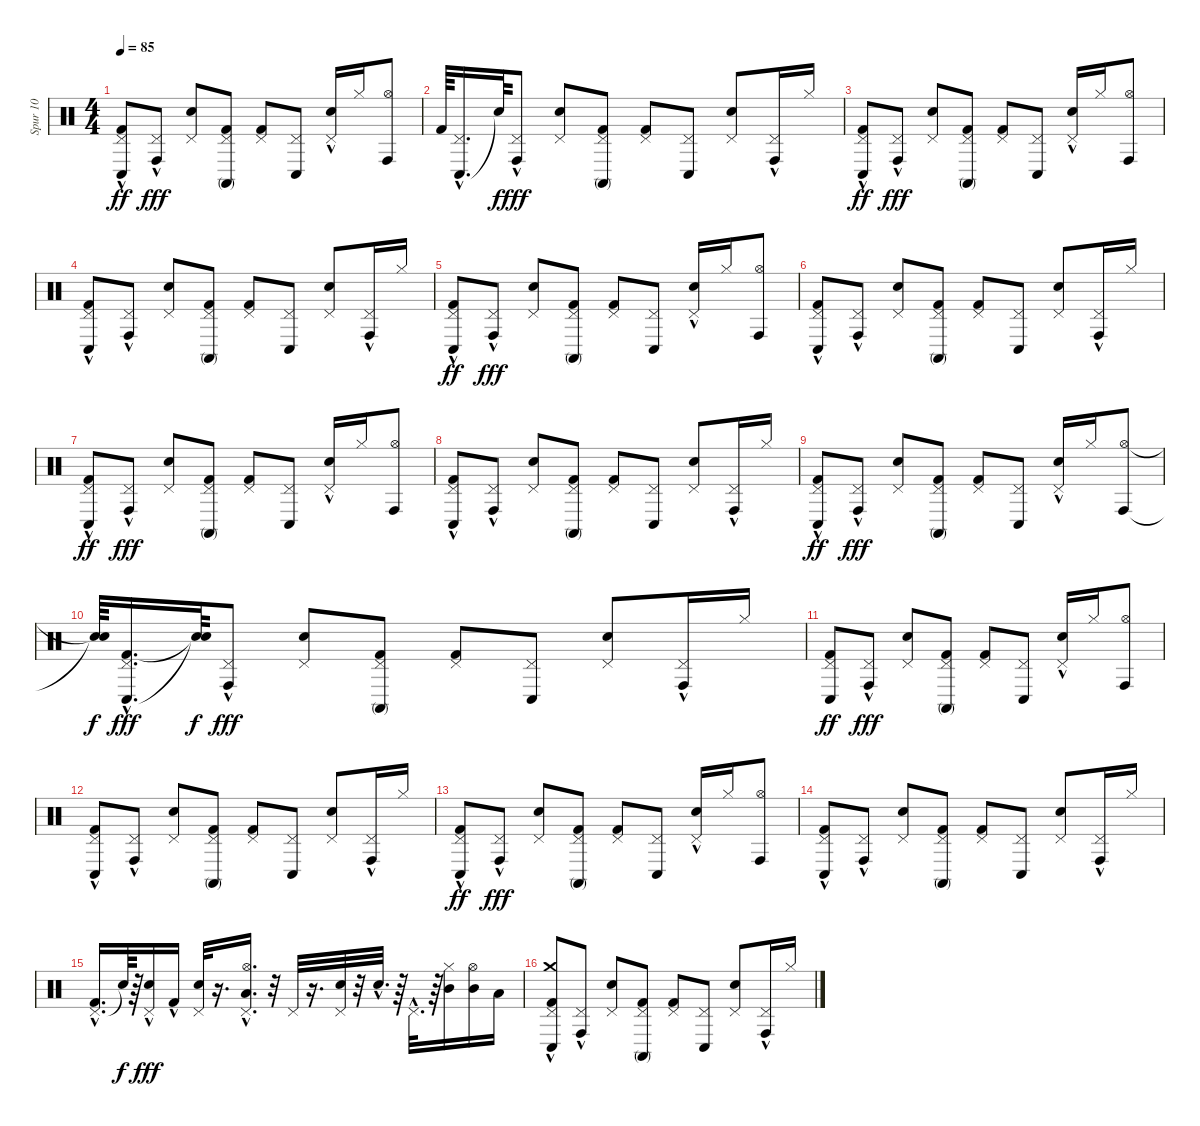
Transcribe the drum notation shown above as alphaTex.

\track ("Spur 10" "Spur 10") {instrument percussion}
\staff {score}
\articulation defaults
\ts (4 4)
\tempo 85
\clef neutral
\ks c
("Pedal Hi-Hat (hit)"{hac} "Kick (hit) 2" "Conga low (hit)").8{dy ff} ("Conga high (hit)" "Pedal Hi-Hat (hit)"{hac}).8{dy fff} ("Pedal Hi-Hat (hit)" "Snare (hit) 2").8 ("Kick (hit) 2" "Conga high (mute)" "Pedal Hi-Hat (hit)").8 ("Kick (hit) 2" "Pedal Hi-Hat (hit)").8 ("Conga low (hit)" "Pedal Hi-Hat (hit)").8 ("Snare (hit) 2" "Pedal Hi-Hat (hit)"{hac}).16 "Hi-Hat (closed)".16 ("Conga high (hit)" "Hi-Hat (open)").8 |
"Kick (hit) 2".64 ("Conga low (hit)"{hac} "Pedal Hi-Hat (hit)").16{d} "Snare (hit)"{t}.64{dy f} ("Conga high (hit)" "Pedal Hi-Hat (hit)"{hac}).8{dy fff} ("Snare (hit) 2" "Pedal Hi-Hat (hit)").8 ("Kick (hit) 2" "Conga high (mute)" "Pedal Hi-Hat (hit)").8 ("Kick (hit) 2" "Pedal Hi-Hat (hit)").8 ("Conga low (hit)" "Pedal Hi-Hat (hit)").8 ("Snare (hit) 2" "Pedal Hi-Hat (hit)").8 ("Conga high (hit)" "Pedal Hi-Hat (hit)"{hac}).16 "Hi-Hat (closed)".16 |
("Pedal Hi-Hat (hit)"{hac} "Kick (hit) 2" "Conga low (hit)").8{dy ff} ("Conga high (hit)" "Pedal Hi-Hat (hit)"{hac}).8{dy fff} ("Pedal Hi-Hat (hit)" "Snare (hit) 2").8 ("Kick (hit) 2" "Conga high (mute)" "Pedal Hi-Hat (hit)").8 ("Kick (hit) 2" "Pedal Hi-Hat (hit)").8 ("Conga low (hit)" "Pedal Hi-Hat (hit)").8 ("Snare (hit) 2" "Pedal Hi-Hat (hit)"{hac}).16 "Hi-Hat (closed)".16 ("Conga high (hit)" "Hi-Hat (open)").8 |
("Kick (hit) 2" "Conga low (hit)" "Pedal Hi-Hat (hit)"{hac}).8 ("Conga high (hit)" "Pedal Hi-Hat (hit)"{hac}).8 ("Snare (hit) 2" "Pedal Hi-Hat (hit)").8 ("Kick (hit) 2" "Conga high (mute)" "Pedal Hi-Hat (hit)").8 ("Kick (hit) 2" "Pedal Hi-Hat (hit)").8 ("Conga low (hit)" "Pedal Hi-Hat (hit)").8 ("Snare (hit) 2" "Pedal Hi-Hat (hit)").8 ("Conga high (hit)" "Pedal Hi-Hat (hit)"{hac}).16 "Hi-Hat (closed)".16 |
("Pedal Hi-Hat (hit)"{hac} "Kick (hit) 2" "Conga low (hit)").8{dy ff} ("Conga high (hit)" "Pedal Hi-Hat (hit)"{hac}).8{dy fff} ("Pedal Hi-Hat (hit)" "Snare (hit) 2").8 ("Kick (hit) 2" "Conga high (mute)" "Pedal Hi-Hat (hit)").8 ("Kick (hit) 2" "Pedal Hi-Hat (hit)").8 ("Conga low (hit)" "Pedal Hi-Hat (hit)").8 ("Snare (hit) 2" "Pedal Hi-Hat (hit)"{hac}).16 "Hi-Hat (closed)".16 ("Conga high (hit)" "Hi-Hat (open)").8 |
("Kick (hit) 2" "Conga low (hit)" "Pedal Hi-Hat (hit)"{hac}).8 ("Conga high (hit)" "Pedal Hi-Hat (hit)"{hac}).8 ("Snare (hit) 2" "Pedal Hi-Hat (hit)").8 ("Kick (hit) 2" "Conga high (mute)" "Pedal Hi-Hat (hit)").8 ("Kick (hit) 2" "Pedal Hi-Hat (hit)").8 ("Conga low (hit)" "Pedal Hi-Hat (hit)").8 ("Snare (hit) 2" "Pedal Hi-Hat (hit)").8 ("Conga high (hit)" "Pedal Hi-Hat (hit)"{hac}).16 "Hi-Hat (closed)".16 |
("Pedal Hi-Hat (hit)"{hac} "Kick (hit) 2" "Conga low (hit)").8{dy ff} ("Conga high (hit)" "Pedal Hi-Hat (hit)"{hac}).8{dy fff} ("Pedal Hi-Hat (hit)" "Snare (hit) 2").8 ("Kick (hit) 2" "Conga high (mute)" "Pedal Hi-Hat (hit)").8 ("Kick (hit) 2" "Pedal Hi-Hat (hit)").8 ("Conga low (hit)" "Pedal Hi-Hat (hit)").8 ("Snare (hit) 2" "Pedal Hi-Hat (hit)"{hac}).16 "Hi-Hat (closed)".16 ("Conga high (hit)" "Hi-Hat (open)").8 |
("Kick (hit) 2" "Conga low (hit)" "Pedal Hi-Hat (hit)"{hac}).8 ("Conga high (hit)" "Pedal Hi-Hat (hit)"{hac}).8 ("Snare (hit) 2" "Pedal Hi-Hat (hit)").8 ("Kick (hit) 2" "Conga high (mute)" "Pedal Hi-Hat (hit)").8 ("Kick (hit) 2" "Pedal Hi-Hat (hit)").8 ("Conga low (hit)" "Pedal Hi-Hat (hit)").8 ("Snare (hit) 2" "Pedal Hi-Hat (hit)").8 ("Conga high (hit)" "Pedal Hi-Hat (hit)"{hac}).16 "Hi-Hat (closed)".16 |
("Pedal Hi-Hat (hit)"{hac} "Kick (hit) 2" "Conga low (hit)").8{dy ff} ("Conga high (hit)" "Pedal Hi-Hat (hit)"{hac}).8{dy fff} ("Pedal Hi-Hat (hit)" "Snare (hit) 2").8 ("Kick (hit) 2" "Conga high (mute)" "Pedal Hi-Hat (hit)").8 ("Kick (hit) 2" "Pedal Hi-Hat (hit)").8 ("Conga low (hit)" "Pedal Hi-Hat (hit)").8 ("Snare (hit) 2" "Pedal Hi-Hat (hit)"{hac}).16 "Hi-Hat (closed)".16 ("Conga high (hit)" "Hi-Hat (open)").8 |
("Snare (hit)"{t} "Snare (hit)"{t}).64{dy f} ("Kick (hit) 2"{hac} "Conga low (hit)"{hac} "Pedal Hi-Hat (hit)").16{d dy fff} ("Snare (hit)"{t} "Snare (hit)"{t}).64{dy f} ("Conga high (hit)" "Pedal Hi-Hat (hit)"{hac}).8{dy fff} ("Snare (hit) 2" "Pedal Hi-Hat (hit)").8 ("Kick (hit) 2" "Conga high (mute)" "Pedal Hi-Hat (hit)").8 ("Kick (hit) 2" "Pedal Hi-Hat (hit)").8 ("Conga low (hit)" "Pedal Hi-Hat (hit)").8 ("Snare (hit) 2" "Pedal Hi-Hat (hit)").8 ("Conga high (hit)" "Pedal Hi-Hat (hit)"{hac}).16 "Hi-Hat (closed)".16 |
("Pedal Hi-Hat (hit)" "Kick (hit) 2" "Conga low (hit)").8{dy ff} ("Conga high (hit)" "Pedal Hi-Hat (hit)"{hac}).8{dy fff} ("Pedal Hi-Hat (hit)" "Snare (hit) 2").8 ("Kick (hit) 2" "Conga high (mute)" "Pedal Hi-Hat (hit)").8 ("Kick (hit) 2" "Pedal Hi-Hat (hit)").8 ("Conga low (hit)" "Pedal Hi-Hat (hit)").8 ("Snare (hit) 2" "Pedal Hi-Hat (hit)"{hac}).16 "Hi-Hat (closed)".16 ("Conga high (hit)" "Hi-Hat (open)").8 |
("Kick (hit) 2" "Conga low (hit)" "Pedal Hi-Hat (hit)"{hac}).8 ("Conga high (hit)" "Pedal Hi-Hat (hit)"{hac}).8 ("Snare (hit) 2" "Pedal Hi-Hat (hit)").8 ("Kick (hit) 2" "Conga high (mute)" "Pedal Hi-Hat (hit)").8 ("Kick (hit) 2" "Pedal Hi-Hat (hit)").8 ("Conga low (hit)" "Pedal Hi-Hat (hit)").8 ("Snare (hit) 2" "Pedal Hi-Hat (hit)").8 ("Conga high (hit)" "Pedal Hi-Hat (hit)"{hac}).16 "Hi-Hat (closed)".16 |
("Pedal Hi-Hat (hit)"{hac} "Kick (hit) 2" "Conga low (hit)").8{dy ff} ("Conga high (hit)" "Pedal Hi-Hat (hit)"{hac}).8{dy fff} ("Pedal Hi-Hat (hit)" "Snare (hit) 2").8 ("Kick (hit) 2" "Conga high (mute)" "Pedal Hi-Hat (hit)").8 ("Kick (hit) 2" "Pedal Hi-Hat (hit)").8 ("Conga low (hit)" "Pedal Hi-Hat (hit)").8 ("Snare (hit) 2" "Pedal Hi-Hat (hit)"{hac}).16 "Hi-Hat (closed)".16 ("Conga high (hit)" "Hi-Hat (open)").8 |
("Kick (hit) 2" "Conga low (hit)" "Pedal Hi-Hat (hit)"{hac}).8 ("Conga high (hit)" "Pedal Hi-Hat (hit)"{hac}).8 ("Snare (hit) 2" "Pedal Hi-Hat (hit)").8 ("Kick (hit) 2" "Conga high (mute)" "Pedal Hi-Hat (hit)").8 ("Kick (hit) 2" "Pedal Hi-Hat (hit)").8 ("Conga low (hit)" "Pedal Hi-Hat (hit)").8 ("Snare (hit) 2" "Pedal Hi-Hat (hit)").8 ("Conga high (hit)" "Pedal Hi-Hat (hit)"{hac}).16 "Hi-Hat (closed)".16 |
("Pedal Hi-Hat (hit)"{hac} "Kick (hit) 2"{hac}).16{d} "Snare (hit)"{t}.64{dy f} r.64 ("Snare (hit) 2" "Pedal Hi-Hat (hit)"{hac}).16{dy fff} "Kick (hit) 2"{hac}.16 ("Pedal Hi-Hat (hit)" "Snare (hit) 2").32 r.16{d} ("Hi-Hat (open)"{hac} "Low Tom (hit)" "Pedal Hi-Hat (hit)").16{d} r.32 "Pedal Hi-Hat (hit)".32 r.16{d} ("Snare (hit) 2" "Pedal Hi-Hat (hit)").32 r.32 "Snare (hit) 2"{hac}.32{d} r.64 "Pedal Hi-Hat (hit)"{hac}.32{d} r.64 ("Mid Tom (hit)" "Hi-Hat (closed)").16 ("Mid Tom (hit)" "Hi-Hat (open)").16 "Low Tom (hit)".16 |
("Crash medium (hit)"{hac} "Kick (hit) 2" "Conga low (hit)" "Pedal Hi-Hat (hit)"{hac}).8 ("Conga high (hit)" "Pedal Hi-Hat (hit)"{hac}).8 ("Snare (hit) 2" "Pedal Hi-Hat (hit)").8 ("Kick (hit) 2" "Conga high (mute)" "Pedal Hi-Hat (hit)").8 ("Kick (hit) 2" "Pedal Hi-Hat (hit)").8 ("Conga low (hit)" "Pedal Hi-Hat (hit)").8 ("Snare (hit) 2" "Pedal Hi-Hat (hit)").8 ("Conga high (hit)" "Pedal Hi-Hat (hit)"{hac}).16 "Hi-Hat (closed)".16
